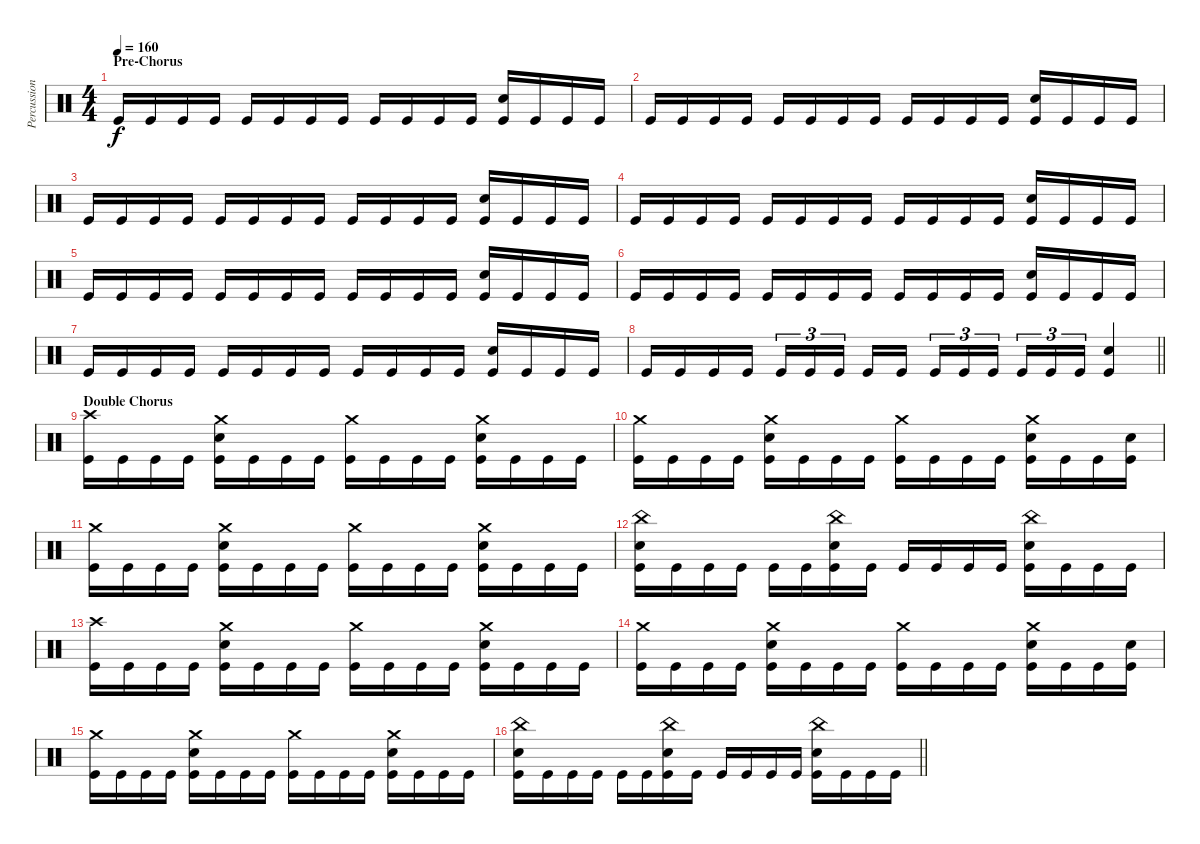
\track ("Percussion" "Percussion") {instrument percussion}
\staff {score}
\articulation defaults
\ts (4 4)
\section ("" "Pre-Chorus")
\tempo 160
\clef neutral
\ks c "Kick (hit)".16{dy f} "Kick (hit)".16 "Kick (hit)".16 "Kick (hit)".16 "Kick (hit)".16 "Kick (hit)".16 "Kick (hit)".16 "Kick (hit)".16 "Kick (hit)".16 "Kick (hit)".16 "Kick (hit)".16 "Kick (hit)".16
("Electric Snare (hit)" "Kick (hit)").16 "Kick (hit)".16 "Kick (hit)".16 "Kick (hit)".16 |
"Kick (hit)".16 "Kick (hit)".16 "Kick (hit)".16 "Kick (hit)".16 "Kick (hit)".16 "Kick (hit)".16 "Kick (hit)".16 "Kick (hit)".16 "Kick (hit)".16 "Kick (hit)".16 "Kick (hit)".16 "Kick (hit)".16 ("Electric Snare (hit)" "Kick (hit)").16 "Kick (hit)".16 "Kick (hit)".16 "Kick (hit)".16 |
"Kick (hit)".16 "Kick (hit)".16 "Kick (hit)".16 "Kick (hit)".16 "Kick (hit)".16 "Kick (hit)".16 "Kick (hit)".16 "Kick (hit)".16 "Kick (hit)".16 "Kick (hit)".16 "Kick (hit)".16 "Kick (hit)".16 ("Electric Snare (hit)" "Kick (hit)").16 "Kick (hit)".16 "Kick (hit)".16 "Kick (hit)".16 |
"Kick (hit)".16 "Kick (hit)".16 "Kick (hit)".16 "Kick (hit)".16 "Kick (hit)".16 "Kick (hit)".16 "Kick (hit)".16 "Kick (hit)".16 "Kick (hit)".16 "Kick (hit)".16 "Kick (hit)".16 "Kick (hit)".16 ("Electric Snare (hit)" "Kick (hit)").16 "Kick (hit)".16 "Kick (hit)".16 "Kick (hit)".16 |
"Kick (hit)".16 "Kick (hit)".16 "Kick (hit)".16 "Kick (hit)".16 "Kick (hit)".16 "Kick (hit)".16 "Kick (hit)".16 "Kick (hit)".16 "Kick (hit)".16 "Kick (hit)".16 "Kick (hit)".16 "Kick (hit)".16 ("Electric Snare (hit)" "Kick (hit)").16 "Kick (hit)".16 "Kick (hit)".16 "Kick (hit)".16 |
"Kick (hit)".16 "Kick (hit)".16 "Kick (hit)".16 "Kick (hit)".16 "Kick (hit)".16 "Kick (hit)".16 "Kick (hit)".16 "Kick (hit)".16 "Kick (hit)".16 "Kick (hit)".16 "Kick (hit)".16 "Kick (hit)".16 ("Electric Snare (hit)" "Kick (hit)").16 "Kick (hit)".16 "Kick (hit)".16 "Kick (hit)".16 |
"Kick (hit)".16 "Kick (hit)".16 "Kick (hit)".16 "Kick (hit)".16 "Kick (hit)".16 "Kick (hit)".16 "Kick (hit)".16 "Kick (hit)".16 "Kick (hit)".16 "Kick (hit)".16 "Kick (hit)".16 "Kick (hit)".16 ("Electric Snare (hit)" "Kick (hit)").16 "Kick (hit)".16 "Kick (hit)".16 "Kick (hit)".16 |
\barLineRight lightlight "Kick (hit)".16 "Kick (hit)".16 "Kick (hit)".16 "Kick (hit)".16 "Kick (hit)".16{tu (3 2)} "Kick (hit)".16{tu (3 2)} "Kick (hit)".16{tu (3 2) beam splitsecondary} "Kick (hit)".16 "Kick (hit)".16 "Kick (hit)".16{tu (3 2)} "Kick (hit)".16{tu (3 2)} "Kick (hit)".16{tu (3 2) beam splitsecondary} "Kick (hit)".16{tu (3 2)} "Kick (hit)".16{tu (3 2)} "Kick (hit)".16{tu (3 2)}
("Electric Snare (hit)" "Kick (hit)").4 |
\section ("" "Double Chorus")
("Crash high (hit)" "Kick (hit)").16 "Kick (hit)".16 "Kick (hit)".16 "Kick (hit)".16 ("Crash medium (hit)" "Electric Snare (hit)" "Kick (hit)").16 "Kick (hit)".16 "Kick (hit)".16 "Kick (hit)".16 ("Crash medium (hit)" "Kick (hit)").16 "Kick (hit)".16 "Kick (hit)".16 "Kick (hit)".16 ("Crash medium (hit)" "Electric Snare (hit)" "Kick (hit)").16 "Kick (hit)".16 "Kick (hit)".16 "Kick (hit)".16 |
("Crash medium (hit)" "Kick (hit)").16 "Kick (hit)".16 "Kick (hit)".16 "Kick (hit)".16 ("Crash medium (hit)" "Electric Snare (hit)" "Kick (hit)").16 "Kick (hit)".16 "Kick (hit)".16 "Kick (hit)".16 ("Crash medium (hit)" "Kick (hit)").16 "Kick (hit)".16 "Kick (hit)".16 "Kick (hit)".16 ("Crash medium (hit)" "Electric Snare (hit)" "Kick (hit)").16 "Kick (hit)".16 "Kick (hit)".16 ("Electric Snare (hit)" "Kick (hit)").16 |
("Crash medium (hit)" "Kick (hit)").16 "Kick (hit)".16 "Kick (hit)".16 "Kick (hit)".16 ("Crash medium (hit)" "Electric Snare (hit)" "Kick (hit)").16 "Kick (hit)".16 "Kick (hit)".16 "Kick (hit)".16 ("Crash medium (hit)" "Kick (hit)").16 "Kick (hit)".16 "Kick (hit)".16 "Kick (hit)".16 ("Crash medium (hit)" "Electric Snare (hit)" "Kick (hit)").16 "Kick (hit)".16 "Kick (hit)".16 "Kick (hit)".16 |
("China (hit)" "Electric Snare (hit)" "Kick (hit)").16 "Kick (hit)".16 "Kick (hit)".16 "Kick (hit)".16 "Kick (hit)".16 "Kick (hit)".16 ("China (hit)" "Electric Snare (hit)" "Kick (hit)").16 "Kick (hit)".16 "Kick (hit)".16 "Kick (hit)".16 "Kick (hit)".16 "Kick (hit)".16 ("China (hit)" "Electric Snare (hit)" "Kick (hit)").16 "Kick (hit)".16 "Kick (hit)".16 "Kick (hit)".16 |
("Crash high (hit)" "Kick (hit)").16 "Kick (hit)".16 "Kick (hit)".16 "Kick (hit)".16 ("Crash medium (hit)" "Electric Snare (hit)" "Kick (hit)").16 "Kick (hit)".16 "Kick (hit)".16 "Kick (hit)".16 ("Crash medium (hit)" "Kick (hit)").16 "Kick (hit)".16 "Kick (hit)".16 "Kick (hit)".16 ("Crash medium (hit)" "Electric Snare (hit)" "Kick (hit)").16 "Kick (hit)".16 "Kick (hit)".16 "Kick (hit)".16 |
("Crash medium (hit)" "Kick (hit)").16 "Kick (hit)".16 "Kick (hit)".16 "Kick (hit)".16 ("Crash medium (hit)" "Electric Snare (hit)" "Kick (hit)").16 "Kick (hit)".16 "Kick (hit)".16 "Kick (hit)".16 ("Crash medium (hit)" "Kick (hit)").16 "Kick (hit)".16 "Kick (hit)".16 "Kick (hit)".16 ("Crash medium (hit)" "Electric Snare (hit)" "Kick (hit)").16 "Kick (hit)".16 "Kick (hit)".16 ("Electric Snare (hit)" "Kick (hit)").16 |
("Crash medium (hit)" "Kick (hit)").16 "Kick (hit)".16 "Kick (hit)".16 "Kick (hit)".16 ("Crash medium (hit)" "Electric Snare (hit)" "Kick (hit)").16 "Kick (hit)".16 "Kick (hit)".16 "Kick (hit)".16 ("Crash medium (hit)" "Kick (hit)").16 "Kick (hit)".16 "Kick (hit)".16 "Kick (hit)".16 ("Crash medium (hit)" "Electric Snare (hit)" "Kick (hit)").16 "Kick (hit)".16 "Kick (hit)".16 "Kick (hit)".16 |
\barLineRight lightlight
("China (hit)" "Electric Snare (hit)" "Kick (hit)").16 "Kick (hit)".16 "Kick (hit)".16 "Kick (hit)".16 "Kick (hit)".16 "Kick (hit)".16 ("China (hit)" "Electric Snare (hit)" "Kick (hit)").16 "Kick (hit)".16 "Kick (hit)".16 "Kick (hit)".16 "Kick (hit)".16 "Kick (hit)".16 ("China (hit)" "Electric Snare (hit)" "Kick (hit)").16 "Kick (hit)".16 "Kick (hit)".16 "Kick (hit)".16
